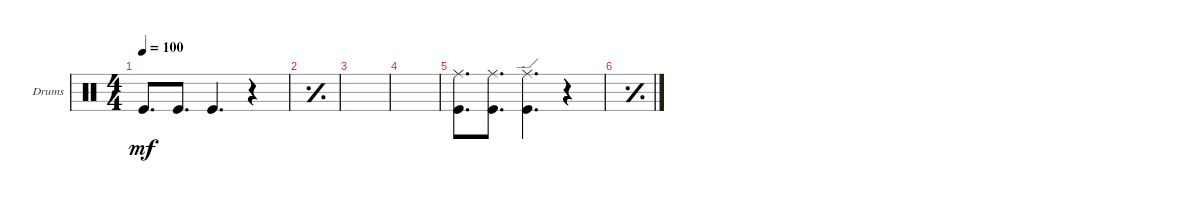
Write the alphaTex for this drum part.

\bracketExtendMode groupsimilarinstruments
\firstSystemTrackNameOrientation horizontal
\otherSystemsTrackNameOrientation horizontal
\track ("Drumkit" "Drums") {instrument percussion}
\staff {score}
\articulation defaults
\ts (4 4)
\tempo 100
\clef neutral
\scale
0.333333
\ks c "Kick (hit)".8{d dy mf} "Kick (hit)".8{d} "Kick (hit)".4{d}
r.4 |
\simile simple
\scale
0.333333 |
|
\scale
0.333333 |
\simile none
\scale
0.333333 ("Kick (hit)" "Ride (middle)").8{d} ("Kick (hit)" "Ride (middle)").8{d} ("Kick (hit)" "Ride (edge)").4{d} r.4 |
\simile simple
\scale
0.333333 |
\scale
0.333333 |
\simile none
\scale
0.333333 |
\scale
0.333333 |
\scale
0.333333 |
\scale
0.333333 |
\scale
0.333333 |
\scale
0.333333 |
\scale
0.333333 |
\scale
0.333333 |
\scale
0.333333
